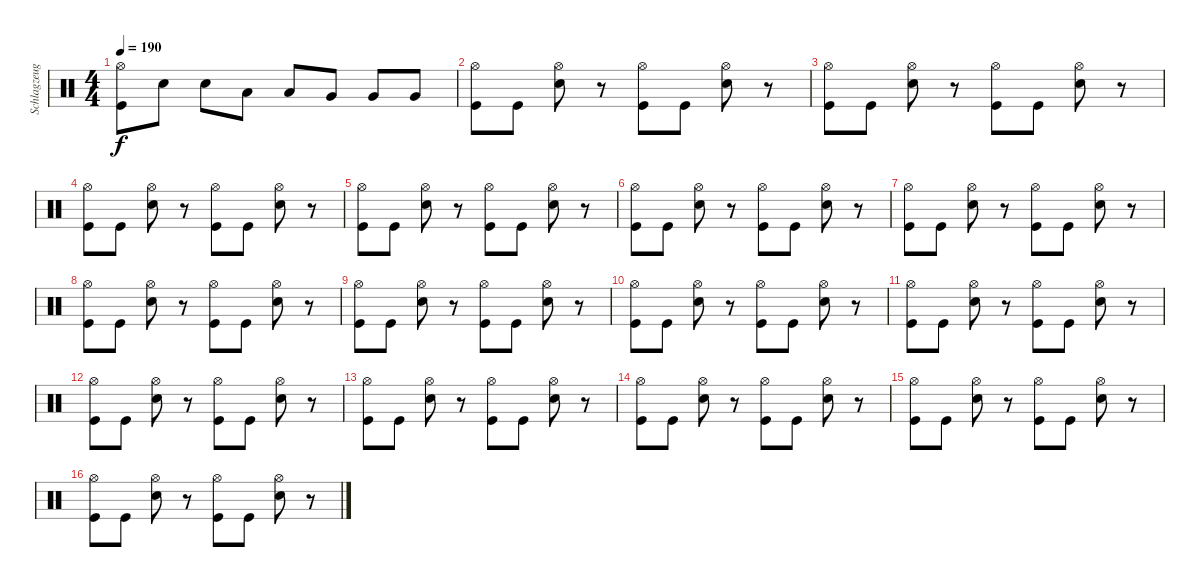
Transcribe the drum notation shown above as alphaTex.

\track ("Schlagzeug" "Schlagzeug") {instrument percussion}
\staff {score}
\articulation defaults
\ts (4 4)
\tempo 190
\clef neutral
\ks c
("Kick (hit)" "Hi-Hat (open)").8{dy f} "Electric Snare (hit)".8 "Electric Snare (hit)".8 "Low Tom (hit)".8 "Low Tom (hit)".8 "Very Low Tom (hit)".8 "Very Low Tom (hit)".8 "Very Low Tom (hit)".8 |
("Kick (hit)" "Hi-Hat (open)").8 "Kick (hit)".8 ("Electric Snare (hit)" "Hi-Hat (open)").8 r.8 ("Kick (hit)" "Hi-Hat (open)").8 "Kick (hit)".8 ("Electric Snare (hit)" "Hi-Hat (open)").8 r.8 |
("Kick (hit)" "Hi-Hat (open)").8 "Kick (hit)".8 ("Electric Snare (hit)" "Hi-Hat (open)").8 r.8 ("Kick (hit)" "Hi-Hat (open)").8 "Kick (hit)".8 ("Electric Snare (hit)" "Hi-Hat (open)").8 r.8 |
("Kick (hit)" "Hi-Hat (open)").8 "Kick (hit)".8 ("Electric Snare (hit)" "Hi-Hat (open)").8 r.8 ("Kick (hit)" "Hi-Hat (open)").8 "Kick (hit)".8 ("Electric Snare (hit)" "Hi-Hat (open)").8 r.8 |
("Kick (hit)" "Hi-Hat (open)").8 "Kick (hit)".8 ("Electric Snare (hit)" "Hi-Hat (open)").8 r.8 ("Kick (hit)" "Hi-Hat (open)").8 "Kick (hit)".8 ("Electric Snare (hit)" "Hi-Hat (open)").8 r.8 |
("Kick (hit)" "Hi-Hat (open)").8 "Kick (hit)".8 ("Electric Snare (hit)" "Hi-Hat (open)").8 r.8 ("Kick (hit)" "Hi-Hat (open)").8 "Kick (hit)".8 ("Electric Snare (hit)" "Hi-Hat (open)").8 r.8 |
("Kick (hit)" "Hi-Hat (open)").8 "Kick (hit)".8 ("Electric Snare (hit)" "Hi-Hat (open)").8 r.8 ("Kick (hit)" "Hi-Hat (open)").8 "Kick (hit)".8 ("Electric Snare (hit)" "Hi-Hat (open)").8 r.8 |
("Kick (hit)" "Hi-Hat (open)").8 "Kick (hit)".8 ("Electric Snare (hit)" "Hi-Hat (open)").8 r.8 ("Kick (hit)" "Hi-Hat (open)").8 "Kick (hit)".8 ("Electric Snare (hit)" "Hi-Hat (open)").8 r.8 |
("Kick (hit)" "Hi-Hat (open)").8 "Kick (hit)".8 ("Electric Snare (hit)" "Hi-Hat (open)").8 r.8 ("Kick (hit)" "Hi-Hat (open)").8 "Kick (hit)".8 ("Electric Snare (hit)" "Hi-Hat (open)").8 r.8 |
("Kick (hit)" "Hi-Hat (open)").8 "Kick (hit)".8 ("Electric Snare (hit)" "Hi-Hat (open)").8 r.8 ("Kick (hit)" "Hi-Hat (open)").8 "Kick (hit)".8 ("Electric Snare (hit)" "Hi-Hat (open)").8 r.8 |
("Kick (hit)" "Hi-Hat (open)").8 "Kick (hit)".8 ("Electric Snare (hit)" "Hi-Hat (open)").8 r.8 ("Kick (hit)" "Hi-Hat (open)").8 "Kick (hit)".8 ("Electric Snare (hit)" "Hi-Hat (open)").8 r.8 |
("Kick (hit)" "Hi-Hat (open)").8 "Kick (hit)".8 ("Electric Snare (hit)" "Hi-Hat (open)").8 r.8 ("Kick (hit)" "Hi-Hat (open)").8 "Kick (hit)".8 ("Electric Snare (hit)" "Hi-Hat (open)").8 r.8 |
("Kick (hit)" "Hi-Hat (open)").8 "Kick (hit)".8 ("Electric Snare (hit)" "Hi-Hat (open)").8 r.8 ("Kick (hit)" "Hi-Hat (open)").8 "Kick (hit)".8 ("Electric Snare (hit)" "Hi-Hat (open)").8 r.8 |
("Kick (hit)" "Hi-Hat (open)").8 "Kick (hit)".8 ("Electric Snare (hit)" "Hi-Hat (open)").8 r.8 ("Kick (hit)" "Hi-Hat (open)").8 "Kick (hit)".8 ("Electric Snare (hit)" "Hi-Hat (open)").8 r.8 |
("Kick (hit)" "Hi-Hat (open)").8 "Kick (hit)".8 ("Electric Snare (hit)" "Hi-Hat (open)").8 r.8 ("Kick (hit)" "Hi-Hat (open)").8 "Kick (hit)".8 ("Electric Snare (hit)" "Hi-Hat (open)").8 r.8 |
("Kick (hit)" "Hi-Hat (open)").8 "Kick (hit)".8 ("Electric Snare (hit)" "Hi-Hat (open)").8 r.8 ("Kick (hit)" "Hi-Hat (open)").8 "Kick (hit)".8 ("Electric Snare (hit)" "Hi-Hat (open)").8 r.8
